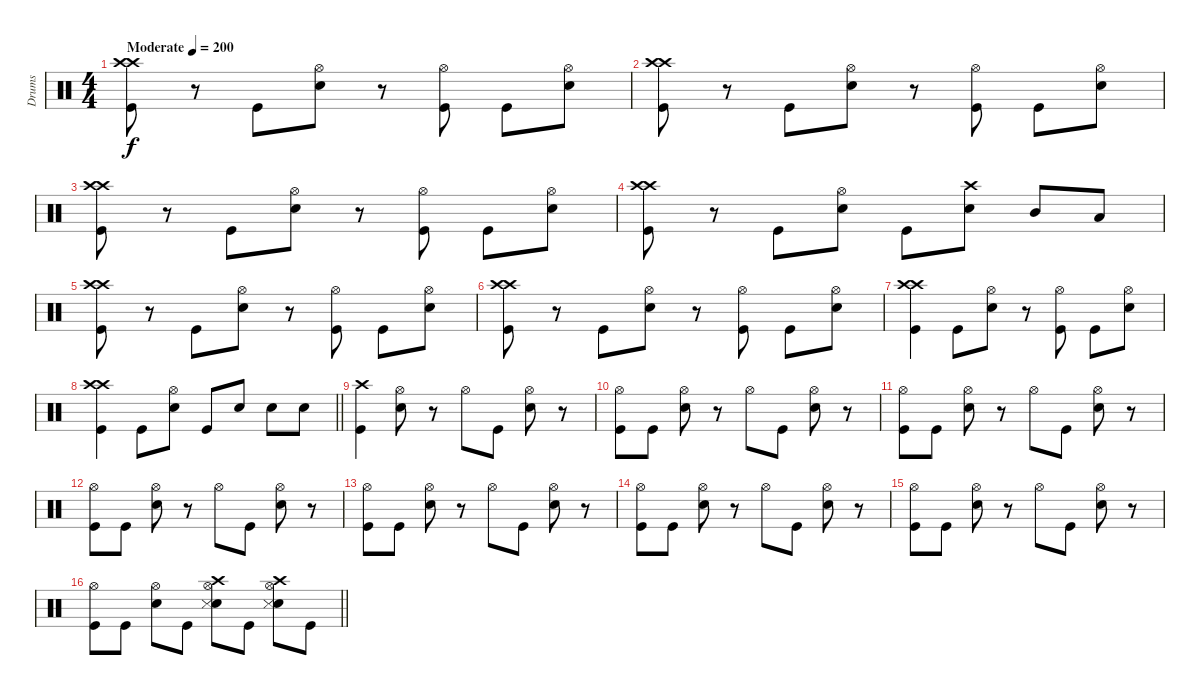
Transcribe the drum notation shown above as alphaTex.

\track ("Drums" "Drums") {instrument percussion}
\staff {score}
\articulation defaults
\ts (4 4)
\tempo (200 "Moderate")
\clef neutral
\ks c
("Crash high (hit)" "Crash high (hit)" "Kick (hit)").8{dy f} r.8 "Kick (hit)".8 ("Hi-Hat (open)" "Snare (hit) 2").8 r.8 ("Hi-Hat (open)" "Kick (hit)").8 "Kick (hit)".8 ("Hi-Hat (open)" "Snare (hit) 2").8 |
("Crash high (hit)" "Crash high (hit)" "Kick (hit)").8 r.8 "Kick (hit)".8 ("Hi-Hat (open)" "Snare (hit) 2").8 r.8 ("Hi-Hat (open)" "Kick (hit)").8 "Kick (hit)".8 ("Hi-Hat (open)" "Snare (hit) 2").8 |
("Crash high (hit)" "Crash high (hit)" "Kick (hit)").8 r.8 "Kick (hit)".8 ("Hi-Hat (open)" "Snare (hit) 2").8 r.8 ("Hi-Hat (open)" "Kick (hit)").8 "Kick (hit)".8 ("Hi-Hat (open)" "Snare (hit) 2").8 |
("Crash high (hit)" "Crash high (hit)" "Kick (hit)").8 r.8 "Kick (hit)".8 ("Hi-Hat (open)" "Snare (hit) 2").8 "Kick (hit)".8 ("Crash high (hit)" "Snare (hit) 2").8 "Mid Tom (hit)".8 "Low Tom (hit)".8 |
("Crash high (hit)" "Crash high (hit)" "Kick (hit)").8 r.8 "Kick (hit)".8 ("Hi-Hat (open)" "Snare (hit) 2").8 r.8 ("Hi-Hat (open)" "Kick (hit)").8 "Kick (hit)".8 ("Hi-Hat (open)" "Snare (hit) 2").8 |
("Crash high (hit)" "Crash high (hit)" "Kick (hit)").8 r.8 "Kick (hit)".8 ("Hi-Hat (open)" "Snare (hit) 2").8 r.8 ("Hi-Hat (open)" "Kick (hit)").8 "Kick (hit)".8 ("Hi-Hat (open)" "Snare (hit) 2").8 |
("Crash high (hit)" "Crash high (hit)" "Kick (hit)").4 "Kick (hit)".8 ("Hi-Hat (open)" "Snare (hit) 2").8 r.8 ("Hi-Hat (open)" "Kick (hit)").8 "Kick (hit)".8 ("Hi-Hat (open)" "Snare (hit) 2").8 |
\barLineRight lightlight
("Crash high (hit)" "Crash high (hit)" "Kick (hit)").4 "Kick (hit)".8 ("Hi-Hat (open)" "Snare (hit) 2").8 "Kick (hit)".8 "Snare (hit) 2".8 "Snare (hit) 2".8 "Snare (hit) 2".8 |
("Crash high (hit)" "Kick (hit)").4 ("Hi-Hat (open)" "Snare (hit) 2").8 r.8 "Hi-Hat (open)".8 "Kick (hit)".8 ("Hi-Hat (open)" "Snare (hit) 2").8 r.8 |
("Hi-Hat (open)" "Kick (hit)").8 "Kick (hit)".8 ("Hi-Hat (open)" "Snare (hit) 2").8 r.8 "Hi-Hat (open)".8 "Kick (hit)".8 ("Hi-Hat (open)" "Snare (hit) 2").8 r.8 |
("Hi-Hat (open)" "Kick (hit)").8 "Kick (hit)".8 ("Hi-Hat (open)" "Snare (hit) 2").8 r.8 "Hi-Hat (open)".8 "Kick (hit)".8 ("Hi-Hat (open)" "Snare (hit) 2").8 r.8 |
("Hi-Hat (open)" "Kick (hit)").8 "Kick (hit)".8 ("Hi-Hat (open)" "Snare (hit) 2").8 r.8 "Hi-Hat (open)".8 "Kick (hit)".8 ("Hi-Hat (open)" "Snare (hit) 2").8 r.8 |
("Hi-Hat (open)" "Kick (hit)").8 "Kick (hit)".8 ("Hi-Hat (open)" "Snare (hit) 2").8 r.8 "Hi-Hat (open)".8 "Kick (hit)".8 ("Hi-Hat (open)" "Snare (hit) 2").8 r.8 |
("Hi-Hat (open)" "Kick (hit)").8 "Kick (hit)".8 ("Hi-Hat (open)" "Snare (hit) 2").8 r.8 "Hi-Hat (open)".8 "Kick (hit)".8 ("Hi-Hat (open)" "Snare (hit) 2").8 r.8 |
("Hi-Hat (open)" "Kick (hit)").8 "Kick (hit)".8 ("Hi-Hat (open)" "Snare (hit) 2").8 r.8 "Hi-Hat (open)".8 "Kick (hit)".8 ("Hi-Hat (open)" "Snare (hit) 2").8 r.8 |
\barLineRight lightlight
("Hi-Hat (open)" "Kick (hit)").8 "Kick (hit)".8 ("Hi-Hat (open)" "Snare (hit) 2").8 "Kick (hit)".8 ("Crash high (hit)" "Snare (hit) 2" "Hi-Hat (open)" "Snare (side stick) 3").8 "Kick (hit)".8 ("Hi-Hat (open)" "Snare (hit) 2" "Crash high (hit)" "Snare (side stick) 3").8 "Kick (hit)".8
